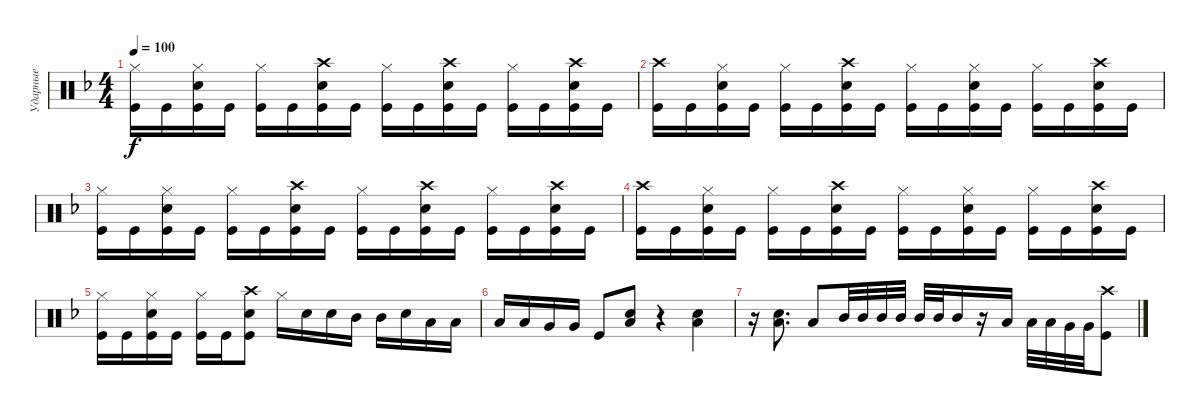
\track ("Ударные" "Ударные") {instrument percussion}
\staff {score}
\articulation defaults
\ts (4 4)
\tempo 100
\clef neutral
\ks dminor
("Kick (hit)" "Hi-Hat (closed)").16{dy f} "Kick (hit)".16 ("Kick (hit)" "Snare (hit) 2" "Hi-Hat (closed)").16 "Kick (hit)".16 ("Kick (hit)" "Hi-Hat (closed)").16 "Kick (hit)".16 ("Kick (hit)" "Snare (hit) 2" "Crash high (hit)").16 "Kick (hit)".16 ("Kick (hit)" "Hi-Hat (closed)").16 "Kick (hit)".16 ("Kick (hit)" "Snare (hit) 2" "Crash high (hit)").16 "Kick (hit)".16 ("Kick (hit)" "Hi-Hat (closed)").16 "Kick (hit)".16 ("Kick (hit)" "Snare (hit) 2" "Crash high (hit)").16 "Kick (hit)".16 |
("Kick (hit)" "Crash high (hit)").16 "Kick (hit)".16 ("Kick (hit)" "Snare (hit) 2" "Hi-Hat (closed)").16 "Kick (hit)".16 ("Kick (hit)" "Hi-Hat (closed)").16 "Kick (hit)".16 ("Kick (hit)" "Snare (hit) 2" "Crash high (hit)").16 "Kick (hit)".16 ("Kick (hit)" "Hi-Hat (closed)").16 "Kick (hit)".16 ("Kick (hit)" "Snare (hit) 2" "Hi-Hat (closed)").16 "Kick (hit)".16 ("Kick (hit)" "Hi-Hat (closed)").16 "Kick (hit)".16 ("Kick (hit)" "Snare (hit) 2" "Crash high (hit)").16 "Kick (hit)".16 |
("Kick (hit)" "Hi-Hat (closed)").16 "Kick (hit)".16 ("Kick (hit)" "Snare (hit) 2" "Hi-Hat (closed)").16 "Kick (hit)".16 ("Kick (hit)" "Hi-Hat (closed)").16 "Kick (hit)".16 ("Kick (hit)" "Snare (hit) 2" "Crash high (hit)").16 "Kick (hit)".16 ("Kick (hit)" "Hi-Hat (closed)").16 "Kick (hit)".16 ("Kick (hit)" "Snare (hit) 2" "Crash high (hit)").16 "Kick (hit)".16 ("Kick (hit)" "Hi-Hat (closed)").16 "Kick (hit)".16 ("Kick (hit)" "Snare (hit) 2" "Crash high (hit)").16 "Kick (hit)".16 |
("Kick (hit)" "Crash high (hit)").16 "Kick (hit)".16 ("Kick (hit)" "Snare (hit) 2" "Hi-Hat (closed)").16 "Kick (hit)".16 ("Kick (hit)" "Hi-Hat (closed)").16 "Kick (hit)".16 ("Kick (hit)" "Snare (hit) 2" "Crash high (hit)").16 "Kick (hit)".16 ("Kick (hit)" "Hi-Hat (closed)").16 "Kick (hit)".16 ("Kick (hit)" "Snare (hit) 2" "Hi-Hat (closed)").16 "Kick (hit)".16 ("Kick (hit)" "Hi-Hat (closed)").16 "Kick (hit)".16 ("Kick (hit)" "Snare (hit) 2" "Crash high (hit)").16 "Kick (hit)".16 |
("Kick (hit)" "Hi-Hat (closed)").16 "Kick (hit)".16 ("Kick (hit)" "Snare (hit) 2" "Hi-Hat (closed)").16 "Kick (hit)".16 ("Kick (hit)" "Hi-Hat (closed)").16 "Kick (hit)".16 ("Kick (hit)" "Snare (hit) 2" "Crash high (hit)").8 "Hi-Hat (closed)".16 "Snare (hit) 2".16 "Snare (hit) 2".16 "Mid Tom (hit)".16 "Mid Tom (hit)".16 "Snare (hit) 2".16 "Low Tom (hit)".16 "Low Tom (hit)".16 |
"Low Tom (hit)".16 "Low Tom (hit)".16 "Very Low Tom (hit)".16 "Very Low Tom (hit)".16 "Kick (hit)".8 ("Snare (hit) 2" "Low Tom (hit)").8{bd 240} r.4 ("Snare (hit) 2" "Low Tom (hit)").4{bd 120} |
r.16 ("Snare (hit) 2" "Low Tom (hit)").8{d bd 120} "Low Tom (hit)".8 "Mid Tom (hit)".32 "Mid Tom (hit)".32 "Mid Tom (hit)".32 "Mid Tom (hit)".32 "Mid Tom (hit)".32 "Mid Tom (hit)".32 "Mid Tom (hit)".16 r.16 "Low Tom (hit)".16 "Low Tom (hit)".32 "Low Tom (hit)".32 "Very Low Tom (hit)".32 "Very Low Tom (hit)".32 ("Kick (hit)" "Crash high (hit)").8
